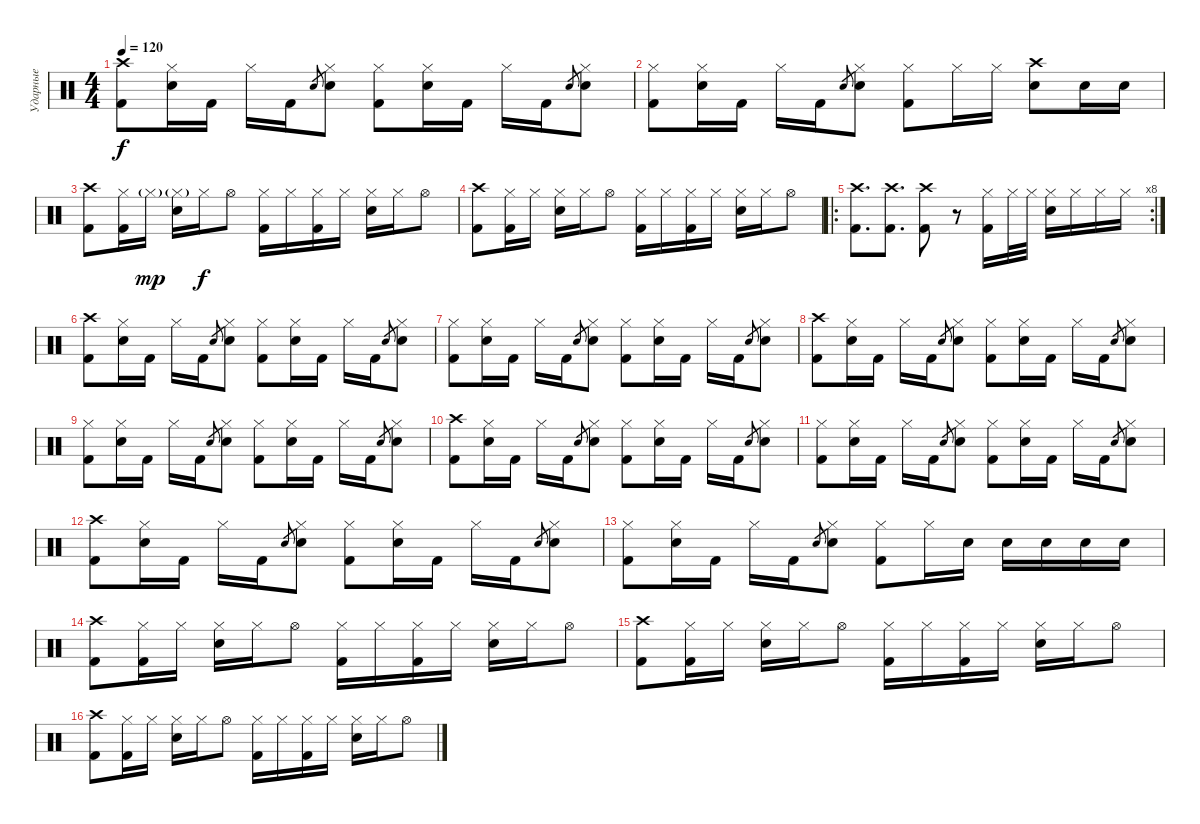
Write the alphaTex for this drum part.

\track ("Ударные" "Ударные") {instrument percussion}
\staff {score}
\articulation defaults
\ts (4 4)
\tempo 120
\clef neutral
\ks c
("Kick (hit) 2" "Crash high (hit)").8{dy f} ("Electric Snare (hit)" "Hi-Hat (closed)").16 "Kick (hit) 2".16 "Hi-Hat (closed)".16 "Kick (hit) 2".16 "Electric Snare (hit)".8{gr} ("Electric Snare (hit)" "Hi-Hat (closed)").8 ("Kick (hit) 2" "Hi-Hat (closed)").8 ("Electric Snare (hit)" "Hi-Hat (closed)").16 "Kick (hit) 2".16 "Hi-Hat (closed)".16 "Kick (hit) 2".16 "Electric Snare (hit)".8{gr} ("Electric Snare (hit)" "Hi-Hat (closed)").8 |
("Kick (hit) 2" "Hi-Hat (closed)").8 ("Electric Snare (hit)" "Hi-Hat (closed)").16 "Kick (hit) 2".16 "Hi-Hat (closed)".16 "Kick (hit) 2".16 "Electric Snare (hit)".8{gr} ("Electric Snare (hit)" "Hi-Hat (closed)").8 ("Kick (hit) 2" "Hi-Hat (closed)").8 "Hi-Hat (closed)".16 "Hi-Hat (closed)".16 ("Electric Snare (hit)" "Crash high (hit)").8 "Electric Snare (hit)".16 "Electric Snare (hit)".16 |
("Kick (hit) 2" "Crash high (hit)").8 ("Kick (hit) 2" "Hi-Hat (closed)").16 "Hi-Hat (closed)"{g}.16{dy mp} ("Electric Snare (hit)" "Hi-Hat (closed)"{g}).16 "Hi-Hat (closed)".16{dy f} "Hi-Hat (open)".8 ("Kick (hit) 2" "Hi-Hat (closed)").16 "Hi-Hat (closed)".16 ("Kick (hit) 2" "Hi-Hat (closed)").16 "Hi-Hat (closed)".16 ("Electric Snare (hit)" "Hi-Hat (closed)").16 "Hi-Hat (closed)".16 "Hi-Hat (open)".8 |
("Kick (hit) 2" "Crash high (hit)").8 ("Kick (hit) 2" "Hi-Hat (closed)").16 "Hi-Hat (closed)".16 ("Electric Snare (hit)" "Hi-Hat (closed)").16 "Hi-Hat (closed)".16 "Hi-Hat (open)".8 ("Kick (hit) 2" "Hi-Hat (closed)").16 "Hi-Hat (closed)".16 ("Kick (hit) 2" "Hi-Hat (closed)").16 "Hi-Hat (closed)".16 ("Electric Snare (hit)" "Hi-Hat (closed)").16 "Hi-Hat (closed)".16 "Hi-Hat (open)".8 |
\ro
\rc 8
("Kick (hit) 2" "Crash high (hit)").8{d} ("Kick (hit) 2" "Crash high (hit)").8{d} ("Kick (hit) 2" "Crash high (hit)").8 r.8 ("Kick (hit) 2" "Hi-Hat (closed)").16 "Hi-Hat (closed)".32 "Hi-Hat (closed)".32 ("Electric Snare (hit)" "Hi-Hat (closed)").16 "Hi-Hat (closed)".16 "Hi-Hat (closed)".16 "Hi-Hat (closed)".16 |
("Kick (hit) 2" "Crash high (hit)").8 ("Electric Snare (hit)" "Hi-Hat (closed)").16 "Kick (hit) 2".16 "Hi-Hat (closed)".16 "Kick (hit) 2".16 "Electric Snare (hit)".8{gr} ("Electric Snare (hit)" "Hi-Hat (closed)").8 ("Kick (hit) 2" "Hi-Hat (closed)").8 ("Electric Snare (hit)" "Hi-Hat (closed)").16 "Kick (hit) 2".16 "Hi-Hat (closed)".16 "Kick (hit) 2".16 "Electric Snare (hit)".8{gr} ("Electric Snare (hit)" "Hi-Hat (closed)").8 |
("Kick (hit) 2" "Hi-Hat (closed)").8 ("Electric Snare (hit)" "Hi-Hat (closed)").16 "Kick (hit) 2".16 "Hi-Hat (closed)".16 "Kick (hit) 2".16 "Electric Snare (hit)".8{gr} ("Electric Snare (hit)" "Hi-Hat (closed)").8 ("Kick (hit) 2" "Hi-Hat (closed)").8 ("Electric Snare (hit)" "Hi-Hat (closed)").16 "Kick (hit) 2".16 "Hi-Hat (closed)".16 "Kick (hit) 2".16 "Electric Snare (hit)".8{gr} ("Electric Snare (hit)" "Hi-Hat (closed)").8 |
("Kick (hit) 2" "Crash high (hit)").8 ("Electric Snare (hit)" "Hi-Hat (closed)").16 "Kick (hit) 2".16 "Hi-Hat (closed)".16 "Kick (hit) 2".16 "Electric Snare (hit)".8{gr} ("Electric Snare (hit)" "Hi-Hat (closed)").8 ("Kick (hit) 2" "Hi-Hat (closed)").8 ("Electric Snare (hit)" "Hi-Hat (closed)").16 "Kick (hit) 2".16 "Hi-Hat (closed)".16 "Kick (hit) 2".16 "Electric Snare (hit)".8{gr} ("Electric Snare (hit)" "Hi-Hat (closed)").8 |
("Kick (hit) 2" "Hi-Hat (closed)").8 ("Electric Snare (hit)" "Hi-Hat (closed)").16 "Kick (hit) 2".16 "Hi-Hat (closed)".16 "Kick (hit) 2".16 "Electric Snare (hit)".8{gr} ("Electric Snare (hit)" "Hi-Hat (closed)").8 ("Kick (hit) 2" "Hi-Hat (closed)").8 ("Electric Snare (hit)" "Hi-Hat (closed)").16 "Kick (hit) 2".16 "Hi-Hat (closed)".16 "Kick (hit) 2".16 "Electric Snare (hit)".8{gr} ("Electric Snare (hit)" "Hi-Hat (closed)").8 |
("Kick (hit) 2" "Crash high (hit)").8 ("Electric Snare (hit)" "Hi-Hat (closed)").16 "Kick (hit) 2".16 "Hi-Hat (closed)".16 "Kick (hit) 2".16 "Electric Snare (hit)".8{gr} ("Electric Snare (hit)" "Hi-Hat (closed)").8 ("Kick (hit) 2" "Hi-Hat (closed)").8 ("Electric Snare (hit)" "Hi-Hat (closed)").16 "Kick (hit) 2".16 "Hi-Hat (closed)".16 "Kick (hit) 2".16 "Electric Snare (hit)".8{gr} ("Electric Snare (hit)" "Hi-Hat (closed)").8 |
("Kick (hit) 2" "Hi-Hat (closed)").8 ("Electric Snare (hit)" "Hi-Hat (closed)").16 "Kick (hit) 2".16 "Hi-Hat (closed)".16 "Kick (hit) 2".16 "Electric Snare (hit)".8{gr} ("Electric Snare (hit)" "Hi-Hat (closed)").8 ("Kick (hit) 2" "Hi-Hat (closed)").8 ("Electric Snare (hit)" "Hi-Hat (closed)").16 "Kick (hit) 2".16 "Hi-Hat (closed)".16 "Kick (hit) 2".16 "Electric Snare (hit)".8{gr} ("Electric Snare (hit)" "Hi-Hat (closed)").8 |
("Kick (hit) 2" "Crash high (hit)").8 ("Electric Snare (hit)" "Hi-Hat (closed)").16 "Kick (hit) 2".16 "Hi-Hat (closed)".16 "Kick (hit) 2".16 "Electric Snare (hit)".8{gr} ("Electric Snare (hit)" "Hi-Hat (closed)").8 ("Kick (hit) 2" "Hi-Hat (closed)").8 ("Electric Snare (hit)" "Hi-Hat (closed)").16 "Kick (hit) 2".16 "Hi-Hat (closed)".16 "Kick (hit) 2".16 "Electric Snare (hit)".8{gr} ("Electric Snare (hit)" "Hi-Hat (closed)").8 |
("Kick (hit) 2" "Hi-Hat (closed)").8 ("Electric Snare (hit)" "Hi-Hat (closed)").16 "Kick (hit) 2".16 "Hi-Hat (closed)".16 "Kick (hit) 2".16 "Electric Snare (hit)".8{gr} ("Electric Snare (hit)" "Hi-Hat (closed)").8 ("Kick (hit) 2" "Hi-Hat (closed)").8 "Hi-Hat (closed)".16 "Electric Snare (hit)".16 "Electric Snare (hit)".16 "Electric Snare (hit)".16 "Electric Snare (hit)".16 "Electric Snare (hit)".16 |
("Kick (hit) 2" "Crash high (hit)").8 ("Kick (hit) 2" "Hi-Hat (closed)").16 "Hi-Hat (closed)".16 ("Electric Snare (hit)" "Hi-Hat (closed)").16 "Hi-Hat (closed)".16 "Hi-Hat (open)".8 ("Kick (hit) 2" "Hi-Hat (closed)").16 "Hi-Hat (closed)".16 ("Kick (hit) 2" "Hi-Hat (closed)").16 "Hi-Hat (closed)".16 ("Electric Snare (hit)" "Hi-Hat (closed)").16 "Hi-Hat (closed)".16 "Hi-Hat (open)".8 |
("Kick (hit) 2" "Crash high (hit)").8 ("Kick (hit) 2" "Hi-Hat (closed)").16 "Hi-Hat (closed)".16 ("Electric Snare (hit)" "Hi-Hat (closed)").16 "Hi-Hat (closed)".16 "Hi-Hat (open)".8 ("Kick (hit) 2" "Hi-Hat (closed)").16 "Hi-Hat (closed)".16 ("Kick (hit) 2" "Hi-Hat (closed)").16 "Hi-Hat (closed)".16 ("Electric Snare (hit)" "Hi-Hat (closed)").16 "Hi-Hat (closed)".16 "Hi-Hat (open)".8 |
("Kick (hit) 2" "Crash high (hit)").8 ("Kick (hit) 2" "Hi-Hat (closed)").16 "Hi-Hat (closed)".16 ("Electric Snare (hit)" "Hi-Hat (closed)").16 "Hi-Hat (closed)".16 "Hi-Hat (open)".8 ("Kick (hit) 2" "Hi-Hat (closed)").16 "Hi-Hat (closed)".16 ("Kick (hit) 2" "Hi-Hat (closed)").16 "Hi-Hat (closed)".16 ("Electric Snare (hit)" "Hi-Hat (closed)").16 "Hi-Hat (closed)".16 "Hi-Hat (open)".8
